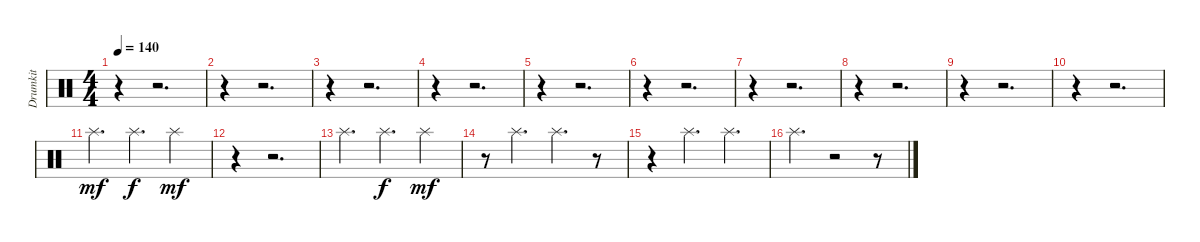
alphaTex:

\track ("Drumkit" "Drumkit") {instrument percussion}
\staff {score}
\articulation defaults
\ts (4 4)
\tempo 140
\clef neutral
\ks c
r.4{dy mf} r.2{d} |
r.4 r.2{d} |
r.4 r.2{d} |
r.4 r.2{d} |
r.4 r.2{d} |
r.4 r.2{d} |
r.4 r.2{d} |
r.4 r.2{d} |
r.4 r.2{d} |
r.4 r.2{d} |
"Splash (hit)".4{d} "Splash (hit)".4{d dy f} "Splash (hit)".4{dy mf} |
r.4 r.2{d} |
"Splash (hit)".4{d} "Splash (hit)".4{d dy f} "Splash (hit)".4{dy mf} |
r.8 "Splash (hit)".4{d} "Splash (hit)".4{d} r.8 |
r.4 "Splash (hit)".4{d} "Splash (hit)".4{d} |
"Splash (hit)".4{d} r.2 r.8
